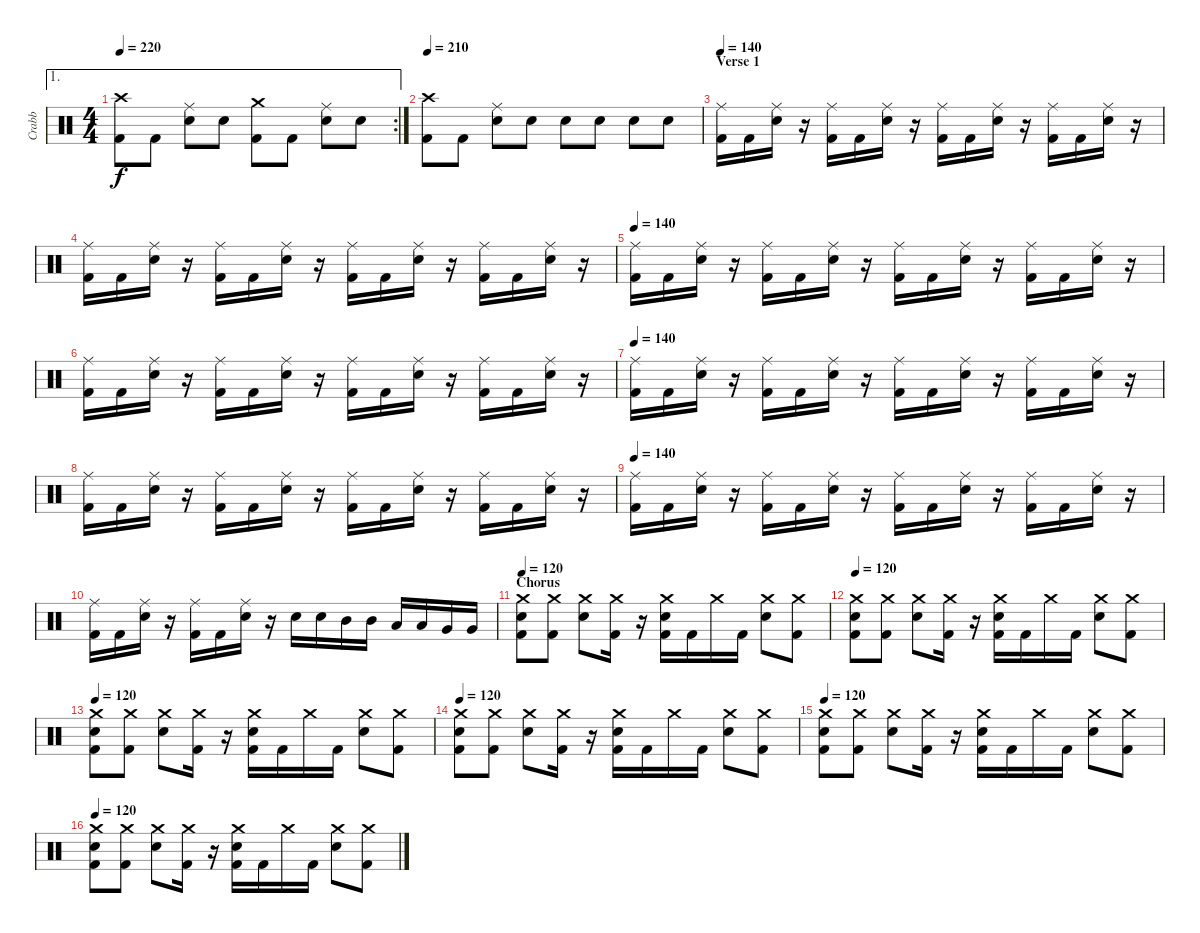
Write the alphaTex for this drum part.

\track ("Crabb" "Crabb") {instrument percussion}
\staff {score}
\articulation defaults
\ae 1
\rc 2
\ts (4 4)
\tempo 220
\clef neutral
\ks c
("Crash high (hit)" "Kick (hit) 2").8{dy f} "Kick (hit) 2".8 ("Ride (middle)" "Electric Snare (hit)").8 "Electric Snare (hit)".8 ("Crash medium (hit)" "Kick (hit) 2").8 "Kick (hit) 2".8 ("Ride (middle)" "Electric Snare (hit)").8 "Electric Snare (hit)".8 |
\tempo 210
("Crash high (hit)" "Kick (hit) 2").8 "Kick (hit) 2".8 ("Ride (middle)" "Electric Snare (hit)").8 "Electric Snare (hit)".8 "Electric Snare (hit)".8 "Electric Snare (hit)".8 "Electric Snare (hit)".8 "Electric Snare (hit)".8 |
\section ("" "Verse 1")
\tempo 140
("Ride (middle)" "Kick (hit) 2").16 "Kick (hit) 2".16 ("Ride (middle)" "Electric Snare (hit)").16 r.16 ("Ride (middle)" "Kick (hit) 2").16 "Kick (hit) 2".16 ("Ride (middle)" "Electric Snare (hit)").16 r.16 ("Ride (middle)" "Kick (hit) 2").16 "Kick (hit) 2".16 ("Ride (middle)" "Electric Snare (hit)").16 r.16 ("Ride (middle)" "Kick (hit) 2").16 "Kick (hit) 2".16 ("Ride (middle)" "Electric Snare (hit)").16 r.16 |
("Ride (middle)" "Kick (hit) 2").16 "Kick (hit) 2".16 ("Ride (middle)" "Electric Snare (hit)").16 r.16 ("Ride (middle)" "Kick (hit) 2").16 "Kick (hit) 2".16 ("Ride (middle)" "Electric Snare (hit)").16 r.16 ("Ride (middle)" "Kick (hit) 2").16 "Kick (hit) 2".16 ("Ride (middle)" "Electric Snare (hit)").16 r.16 ("Ride (middle)" "Kick (hit) 2").16 "Kick (hit) 2".16 ("Ride (middle)" "Electric Snare (hit)").16 r.16 |
\tempo 140
("Ride (middle)" "Kick (hit) 2").16 "Kick (hit) 2".16 ("Ride (middle)" "Electric Snare (hit)").16 r.16 ("Ride (middle)" "Kick (hit) 2").16 "Kick (hit) 2".16 ("Ride (middle)" "Electric Snare (hit)").16 r.16 ("Ride (middle)" "Kick (hit) 2").16 "Kick (hit) 2".16 ("Ride (middle)" "Electric Snare (hit)").16 r.16 ("Ride (middle)" "Kick (hit) 2").16 "Kick (hit) 2".16 ("Ride (middle)" "Electric Snare (hit)").16 r.16 |
("Ride (middle)" "Kick (hit) 2").16 "Kick (hit) 2".16 ("Ride (middle)" "Electric Snare (hit)").16 r.16 ("Ride (middle)" "Kick (hit) 2").16 "Kick (hit) 2".16 ("Ride (middle)" "Electric Snare (hit)").16 r.16 ("Ride (middle)" "Kick (hit) 2").16 "Kick (hit) 2".16 ("Ride (middle)" "Electric Snare (hit)").16 r.16 ("Ride (middle)" "Kick (hit) 2").16 "Kick (hit) 2".16 ("Ride (middle)" "Electric Snare (hit)").16 r.16 |
\tempo 140
("Ride (middle)" "Kick (hit) 2").16 "Kick (hit) 2".16 ("Ride (middle)" "Electric Snare (hit)").16 r.16 ("Ride (middle)" "Kick (hit) 2").16 "Kick (hit) 2".16 ("Ride (middle)" "Electric Snare (hit)").16 r.16 ("Ride (middle)" "Kick (hit) 2").16 "Kick (hit) 2".16 ("Ride (middle)" "Electric Snare (hit)").16 r.16 ("Ride (middle)" "Kick (hit) 2").16 "Kick (hit) 2".16 ("Ride (middle)" "Electric Snare (hit)").16 r.16 |
("Ride (middle)" "Kick (hit) 2").16 "Kick (hit) 2".16 ("Ride (middle)" "Electric Snare (hit)").16 r.16 ("Ride (middle)" "Kick (hit) 2").16 "Kick (hit) 2".16 ("Ride (middle)" "Electric Snare (hit)").16 r.16 ("Ride (middle)" "Kick (hit) 2").16 "Kick (hit) 2".16 ("Ride (middle)" "Electric Snare (hit)").16 r.16 ("Ride (middle)" "Kick (hit) 2").16 "Kick (hit) 2".16 ("Ride (middle)" "Electric Snare (hit)").16 r.16 |
\tempo 140
("Ride (middle)" "Kick (hit) 2").16 "Kick (hit) 2".16 ("Ride (middle)" "Electric Snare (hit)").16 r.16 ("Ride (middle)" "Kick (hit) 2").16 "Kick (hit) 2".16 ("Ride (middle)" "Electric Snare (hit)").16 r.16 ("Ride (middle)" "Kick (hit) 2").16 "Kick (hit) 2".16 ("Ride (middle)" "Electric Snare (hit)").16 r.16 ("Ride (middle)" "Kick (hit) 2").16 "Kick (hit) 2".16 ("Ride (middle)" "Electric Snare (hit)").16 r.16 |
("Ride (middle)" "Kick (hit) 2").16 "Kick (hit) 2".16 ("Ride (middle)" "Electric Snare (hit)").16 r.16 ("Ride (middle)" "Kick (hit) 2").16 "Kick (hit) 2".16 ("Ride (middle)" "Electric Snare (hit)").16 r.16 "Electric Snare (hit)".16 "Electric Snare (hit)".16 "Mid Tom (hit)".16 "Mid Tom (hit)".16 "Low Tom (hit)".16 "Low Tom (hit)".16 "Very Low Tom (hit)".16 "Very Low Tom (hit)".16 |
\section ("" "Chorus")
\tempo 140
\tempo 120
("Crash medium (hit)" "Kick (hit) 2" "Electric Snare (hit)").8 ("Crash medium (hit)" "Kick (hit) 2").8 ("Crash medium (hit)" "Electric Snare (hit)").8 ("Crash medium (hit)" "Kick (hit) 2").16 r.16 ("Crash medium (hit)" "Kick (hit) 2" "Electric Snare (hit)").16 "Kick (hit) 2".16 "Crash medium (hit)".16 "Kick (hit) 2".16 ("Crash medium (hit)" "Electric Snare (hit)").8 ("Crash medium (hit)" "Kick (hit) 2").8 |
\tempo 120
("Crash medium (hit)" "Kick (hit) 2" "Electric Snare (hit)").8 ("Crash medium (hit)" "Kick (hit) 2").8 ("Crash medium (hit)" "Electric Snare (hit)").8 ("Crash medium (hit)" "Kick (hit) 2").16 r.16 ("Crash medium (hit)" "Kick (hit) 2" "Electric Snare (hit)").16 "Kick (hit) 2".16 "Crash medium (hit)".16 "Kick (hit) 2".16 ("Crash medium (hit)" "Electric Snare (hit)").8 ("Crash medium (hit)" "Kick (hit) 2").8 |
\tempo 120
("Crash medium (hit)" "Kick (hit) 2" "Electric Snare (hit)").8 ("Crash medium (hit)" "Kick (hit) 2").8 ("Crash medium (hit)" "Electric Snare (hit)").8 ("Crash medium (hit)" "Kick (hit) 2").16 r.16 ("Crash medium (hit)" "Kick (hit) 2" "Electric Snare (hit)").16 "Kick (hit) 2".16 "Crash medium (hit)".16 "Kick (hit) 2".16 ("Crash medium (hit)" "Electric Snare (hit)").8 ("Crash medium (hit)" "Kick (hit) 2").8 |
\tempo 120
("Crash medium (hit)" "Kick (hit) 2" "Electric Snare (hit)").8 ("Crash medium (hit)" "Kick (hit) 2").8 ("Crash medium (hit)" "Electric Snare (hit)").8 ("Crash medium (hit)" "Kick (hit) 2").16 r.16 ("Crash medium (hit)" "Kick (hit) 2" "Electric Snare (hit)").16 "Kick (hit) 2".16 "Crash medium (hit)".16 "Kick (hit) 2".16 ("Crash medium (hit)" "Electric Snare (hit)").8 ("Crash medium (hit)" "Kick (hit) 2").8 |
\tempo 120
("Crash medium (hit)" "Kick (hit) 2" "Electric Snare (hit)").8 ("Crash medium (hit)" "Kick (hit) 2").8 ("Crash medium (hit)" "Electric Snare (hit)").8 ("Crash medium (hit)" "Kick (hit) 2").16 r.16 ("Crash medium (hit)" "Kick (hit) 2" "Electric Snare (hit)").16 "Kick (hit) 2".16 "Crash medium (hit)".16 "Kick (hit) 2".16 ("Crash medium (hit)" "Electric Snare (hit)").8 ("Crash medium (hit)" "Kick (hit) 2").8 |
\tempo 120
("Crash medium (hit)" "Kick (hit) 2" "Electric Snare (hit)").8 ("Crash medium (hit)" "Kick (hit) 2").8 ("Crash medium (hit)" "Electric Snare (hit)").8 ("Crash medium (hit)" "Kick (hit) 2").16 r.16 ("Crash medium (hit)" "Kick (hit) 2" "Electric Snare (hit)").16 "Kick (hit) 2".16 "Crash medium (hit)".16 "Kick (hit) 2".16 ("Crash medium (hit)" "Electric Snare (hit)").8 ("Crash medium (hit)" "Kick (hit) 2").8
